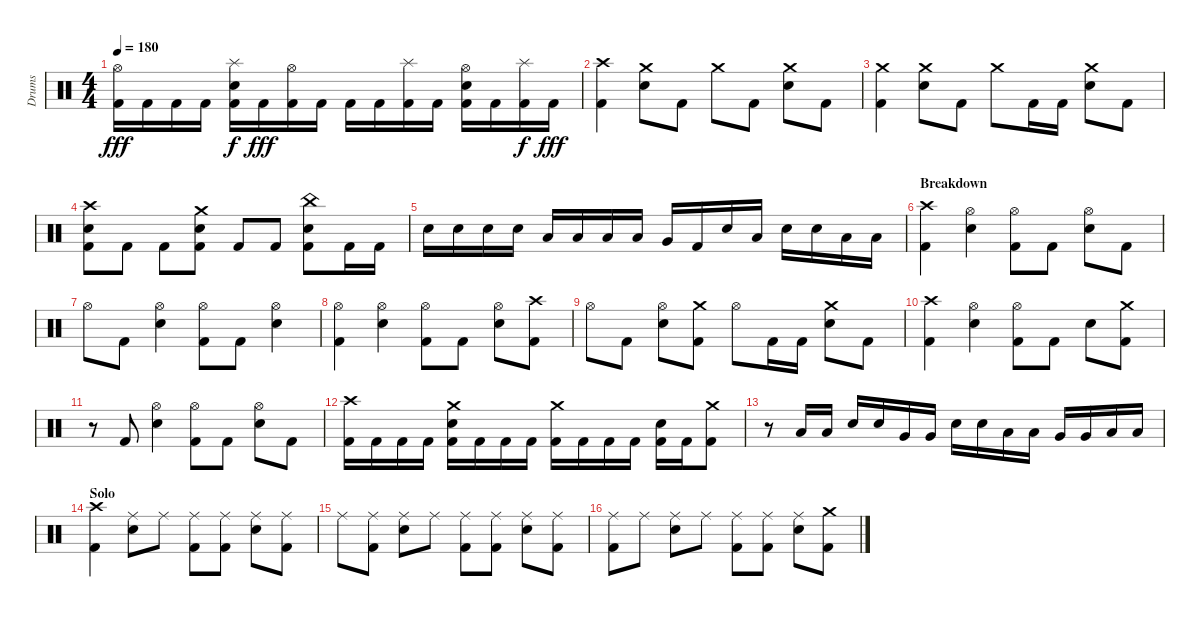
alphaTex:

\track ("Drums" "Drums") {instrument percussion}
\staff {score}
\articulation defaults
\ts (4 4)
\tempo 180
\clef neutral
\ks aminor
("Kick (hit) 2" "Hi-Hat (open)").16{dy fff} "Kick (hit) 2".16 "Kick (hit) 2".16 "Kick (hit) 2".16 ("Splash (hit)" "Kick (hit) 2" "Snare (hit) 2").16{dy f} "Kick (hit) 2".16{dy fff} ("Hi-Hat (open)" "Kick (hit) 2").16 "Kick (hit) 2".16 "Kick (hit) 2".16 "Kick (hit) 2".16 ("Splash (hit)" "Kick (hit) 2").16 "Kick (hit) 2".16 ("Hi-Hat (open)" "Snare (hit) 2" "Kick (hit) 2").16 "Kick (hit) 2".16 ("Splash (hit)" "Kick (hit) 2").16{dy f} "Kick (hit) 2".16{dy fff} |
("Kick (hit) 2" "Crash high (hit)").4 ("Snare (hit) 2" "Crash medium (hit)").8 "Kick (hit) 2".8 "Crash medium (hit)".8 "Kick (hit) 2".8 ("Snare (hit) 2" "Crash medium (hit)").8 "Kick (hit) 2".8 |
("Crash medium (hit)" "Kick (hit) 2").4 ("Snare (hit) 2" "Crash medium (hit)").8 "Kick (hit) 2".8 "Crash medium (hit)".8 "Kick (hit) 2".16 "Kick (hit) 2".16 ("Snare (hit) 2" "Crash medium (hit)").8 "Kick (hit) 2".8 |
("Crash high (hit)" "Kick (hit) 2" "Snare (hit) 2").8 "Kick (hit) 2".8 "Kick (hit) 2".8 ("Kick (hit) 2" "Snare (hit) 2" "Crash medium (hit)").8 "Kick (hit) 2".8 "Kick (hit) 2".8 ("China (hit)" "Snare (hit) 2" "Kick (hit) 2").8 "Kick (hit) 2".16 "Kick (hit) 2".16 |
"Snare (hit) 2".16 "Snare (hit) 2".16 "Snare (hit) 2".16 "Snare (hit) 2".16 "Low Tom (hit)".16 "Low Tom (hit)".16 "Low Tom (hit)".16 "Low Tom (hit)".16 "Very Low Tom (hit)".16 "Kick (hit) 2".16 "Snare (hit) 2".16 "Low Floor Tom (hit)".16 "Snare (hit) 2".16 "Snare (hit) 2".16 "Low Floor Tom (hit)".16 "Low Floor Tom (hit)".16 |
\section ("" "Breakdown")
("Kick (hit) 2" "Crash high (hit)").4 ("Hi-Hat (open)" "Snare (hit) 2").4 ("Kick (hit) 2" "Hi-Hat (open)").8 "Kick (hit) 2".8 ("Hi-Hat (open)" "Snare (hit) 2").8 "Kick (hit) 2".8 |
"Hi-Hat (open)".8 "Kick (hit) 2".8 ("Snare (hit) 2" "Hi-Hat (open)").4 ("Kick (hit) 2" "Hi-Hat (open)").8 "Kick (hit) 2".8 ("Hi-Hat (open)" "Snare (hit) 2").4 |
("Hi-Hat (open)" "Kick (hit) 2").4 ("Snare (hit) 2" "Hi-Hat (open)").4 ("Kick (hit) 2" "Hi-Hat (open)").8 "Kick (hit) 2".8 ("Snare (hit) 2" "Hi-Hat (open)").8 ("Kick (hit) 2" "Crash high (hit)").8 |
"Hi-Hat (open)".8 "Kick (hit) 2".8 ("Hi-Hat (open)" "Snare (hit) 2").8 ("Kick (hit) 2" "Crash medium (hit)").8 "Hi-Hat (open)".8 "Kick (hit) 2".16 "Kick (hit) 2".16 ("Snare (hit) 2" "Crash medium (hit)").8 "Kick (hit) 2".8 |
("Crash high (hit)" "Kick (hit) 2").4 ("Snare (hit) 2" "Hi-Hat (open)").4 ("Kick (hit) 2" "Hi-Hat (open)").8 "Kick (hit) 2".8 "Snare (hit) 2".8 ("Kick (hit) 2" "Crash medium (hit)").8 |
r.8 "Kick (hit) 2".8 ("Snare (hit) 2" "Hi-Hat (open)").4 ("Kick (hit) 2" "Hi-Hat (open)").8 "Kick (hit) 2".8 ("Hi-Hat (open)" "Snare (hit) 2").8 "Kick (hit) 2".8 |
("Crash high (hit)" "Kick (hit) 2").16 "Kick (hit) 2".16 "Kick (hit) 2".16 "Kick (hit) 2".16 ("Snare (hit) 2" "Crash medium (hit)" "Kick (hit) 2").16 "Kick (hit) 2".16 "Kick (hit) 2".16 "Kick (hit) 2".16 ("Kick (hit) 2" "Crash medium (hit)").16 "Kick (hit) 2".16 "Kick (hit) 2".16 "Kick (hit) 2".16 ("Kick (hit) 2" "Snare (hit) 2").16 "Kick (hit) 2".16 ("Kick (hit) 2" "Crash medium (hit)").8 |
r.8 "Low Floor Tom (hit)".16 "Low Floor Tom (hit)".16 "Snare (hit) 2".16 "Snare (hit) 2".16 "Very Low Tom (hit)".16 "Very Low Tom (hit)".16 "Snare (hit) 2".16 "Snare (hit) 2".16 "Low Tom (hit)".16 "Low Tom (hit)".16 "Very Low Tom (hit)".16 "Very Low Tom (hit)".16 "Low Floor Tom (hit)".16 "Low Floor Tom (hit)".16 |
\section ("" "Solo")
("Kick (hit) 2" "Crash high (hit)").4 ("Snare (hit) 2" "Ride (middle)").8 "Ride (middle)".8 ("Kick (hit) 2" "Ride (middle)").8 ("Ride (middle)" "Kick (hit) 2").8 ("Ride (middle)" "Snare (hit) 2").8 ("Ride (middle)" "Kick (hit) 2").8 |
"Ride (middle)".8 ("Ride (middle)" "Kick (hit) 2").8 ("Snare (hit) 2" "Ride (middle)").8 "Ride (middle)".8 ("Kick (hit) 2" "Ride (middle)").8 ("Kick (hit) 2" "Ride (middle)").8 ("Snare (hit) 2" "Ride (middle)").8 ("Kick (hit) 2" "Ride (middle)").8 |
("Ride (middle)" "Kick (hit) 2").8 "Ride (middle)".8 ("Ride (middle)" "Snare (hit) 2").8 "Ride (middle)".8 ("Kick (hit) 2" "Ride (middle)").8 ("Kick (hit) 2" "Ride (middle)").8 ("Snare (hit) 2" "Ride (middle)").8 ("Kick (hit) 2" "Crash medium (hit)").8
